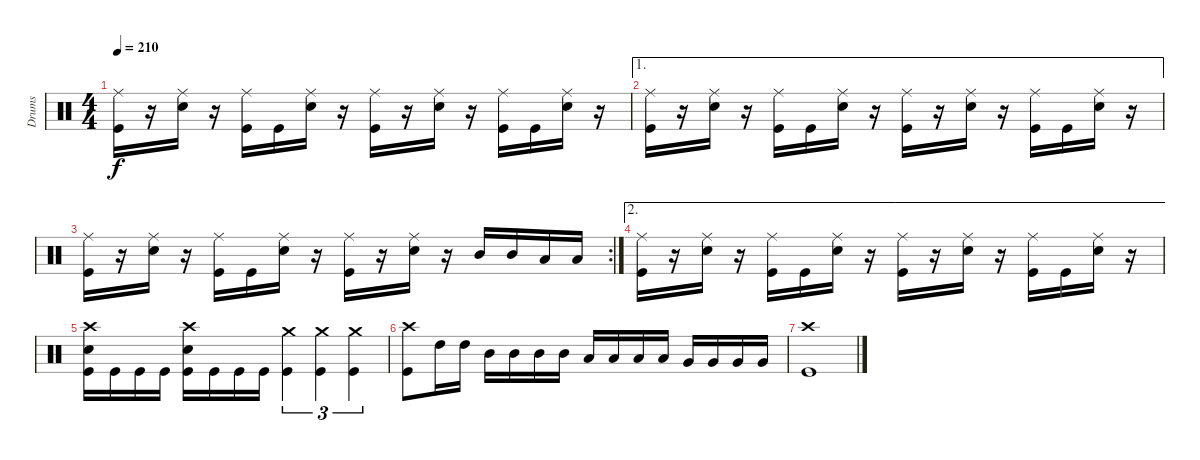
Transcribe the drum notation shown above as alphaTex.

\track ("Drums" "Drums") {instrument percussion}
\staff {score}
\articulation defaults
\ts (4 4)
\tempo 210
\clef neutral
\ks c
("Ride (middle)" "Kick (hit)").16{dy f} r.16 ("Ride (middle)" "Snare (hit) 2").16 r.16 ("Ride (middle)" "Kick (hit)").16 "Kick (hit)".16 ("Ride (middle)" "Snare (hit) 2").16 r.16 ("Ride (middle)" "Kick (hit)").16 r.16 ("Ride (middle)" "Snare (hit) 2").16 r.16 ("Ride (middle)" "Kick (hit)").16 "Kick (hit)".16 ("Ride (middle)" "Snare (hit) 2").16 r.16 |
\ae 1
("Ride (middle)" "Kick (hit)").16 r.16 ("Ride (middle)" "Snare (hit) 2").16 r.16 ("Ride (middle)" "Kick (hit)").16 "Kick (hit)".16 ("Ride (middle)" "Snare (hit) 2").16 r.16 ("Ride (middle)" "Kick (hit)").16 r.16 ("Ride (middle)" "Snare (hit) 2").16 r.16 ("Ride (middle)" "Kick (hit)").16 "Kick (hit)".16 ("Ride (middle)" "Snare (hit) 2").16 r.16 |
\rc 2
("Ride (middle)" "Kick (hit)").16 r.16 ("Ride (middle)" "Snare (hit) 2").16 r.16 ("Ride (middle)" "Kick (hit)").16 "Kick (hit)".16 ("Ride (middle)" "Snare (hit) 2").16 r.16 ("Ride (middle)" "Kick (hit)").16 r.16 ("Ride (middle)" "Snare (hit) 2").16 r.16 "Mid Tom (hit)".16 "Mid Tom (hit)".16 "Low Tom (hit)".16 "Low Tom (hit)".16 |
\ae 2
("Ride (middle)" "Kick (hit)").16 r.16 ("Ride (middle)" "Snare (hit) 2").16 r.16 ("Ride (middle)" "Kick (hit)").16 "Kick (hit)".16 ("Ride (middle)" "Snare (hit) 2").16 r.16 ("Ride (middle)" "Kick (hit)").16 r.16 ("Ride (middle)" "Snare (hit) 2").16 r.16 ("Ride (middle)" "Kick (hit)").16 "Kick (hit)".16 ("Ride (middle)" "Snare (hit) 2").16 r.16 |
("Crash high (hit)" "Snare (hit) 2" "Kick (hit)").16 "Kick (hit)".16 "Kick (hit)".16 "Kick (hit)".16 ("Crash high (hit)" "Snare (hit) 2" "Kick (hit)").16 "Kick (hit)".16 "Kick (hit)".16 "Kick (hit)".16 ("Crash medium (hit)" "Kick (hit)").4{tu (3 2)} ("Crash medium (hit)" "Kick (hit)").4{tu (3 2)} ("Crash medium (hit)" "Kick (hit)").4{tu (3 2)} |
("Crash high (hit)" "Kick (hit)").8 "High Tom (hit)".16 "High Tom (hit)".16 "Mid Tom (hit)".16 "Mid Tom (hit)".16 "Mid Tom (hit)".16 "Mid Tom (hit)".16 "Low Tom (hit)".16 "Low Tom (hit)".16 "Low Tom (hit)".16 "Low Tom (hit)".16 "Very Low Tom (hit)".16 "Very Low Tom (hit)".16 "Very Low Tom (hit)".16 "Very Low Tom (hit)".16 |
("Crash high (hit)" "Kick (hit)").1
